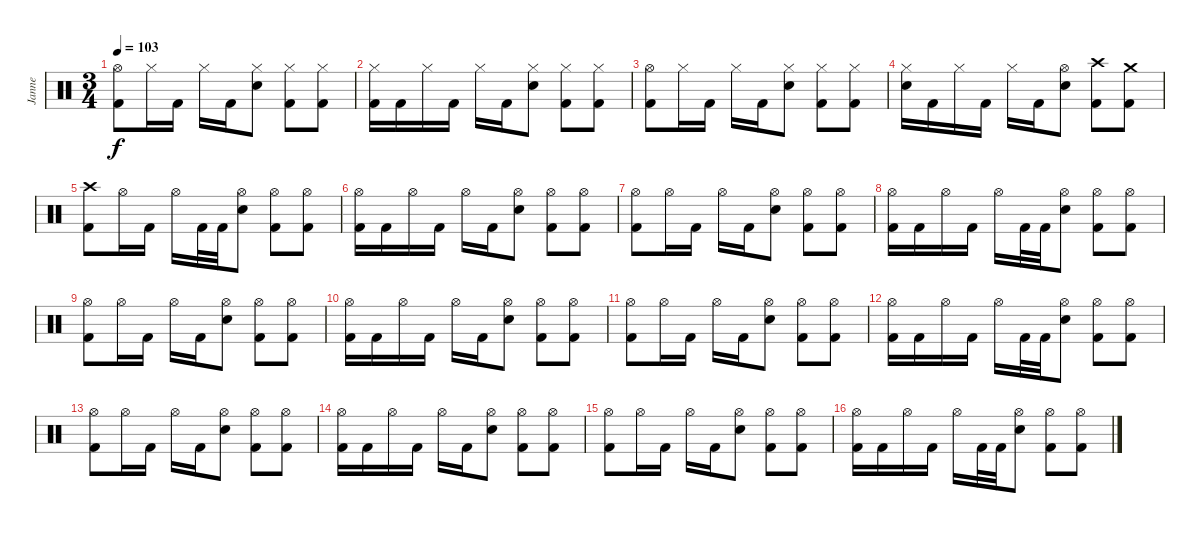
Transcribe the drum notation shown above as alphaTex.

\track ("Janne" "Janne") {instrument percussion}
\staff {score}
\articulation defaults
\ts (3 4)
\tempo 103
\clef neutral
\ks c
("Hi-Hat (open)" "Kick (hit) 2").8{dy f} "Hi-Hat (closed)".16 "Kick (hit) 2".16 "Hi-Hat (closed)".16 "Kick (hit) 2".16 ("Hi-Hat (closed)" "Electric Snare (hit)").8 ("Hi-Hat (closed)" "Kick (hit) 2").8 ("Hi-Hat (closed)" "Kick (hit) 2").8 |
("Hi-Hat (closed)" "Kick (hit) 2").16 "Kick (hit) 2".16 "Hi-Hat (closed)".16 "Kick (hit) 2".16 "Hi-Hat (closed)".16 "Kick (hit) 2".16 ("Hi-Hat (closed)" "Electric Snare (hit)").8 ("Hi-Hat (closed)" "Kick (hit) 2").8 ("Hi-Hat (closed)" "Kick (hit) 2").8 |
("Hi-Hat (open)" "Kick (hit) 2").8 "Hi-Hat (closed)".16 "Kick (hit) 2".16 "Hi-Hat (closed)".16 "Kick (hit) 2".16 ("Hi-Hat (closed)" "Electric Snare (hit)").8 ("Hi-Hat (closed)" "Kick (hit) 2").8 ("Hi-Hat (closed)" "Kick (hit) 2").8 |
("Hi-Hat (closed)" "Electric Snare (hit)").16 "Kick (hit) 2".16 "Hi-Hat (closed)".16 "Kick (hit) 2".16 "Hi-Hat (closed)".16 "Kick (hit) 2".16 ("Hi-Hat (open)" "Electric Snare (hit)").8 ("Crash high (hit)" "Kick (hit) 2").8 ("Crash medium (hit)" "Kick (hit) 2").8 |
("Crash high (hit)" "Kick (hit) 2").8 "Hi-Hat (open)".16 "Kick (hit) 2".16 "Hi-Hat (open)".16 "Kick (hit) 2".32 "Kick (hit) 2".32 ("Hi-Hat (open)" "Electric Snare (hit)").8 ("Hi-Hat (open)" "Kick (hit) 2").8 ("Hi-Hat (open)" "Kick (hit) 2").8 |
("Hi-Hat (open)" "Kick (hit) 2").16 "Kick (hit) 2".16 "Hi-Hat (open)".16 "Kick (hit) 2".16 "Hi-Hat (open)".16 "Kick (hit) 2".16 ("Hi-Hat (open)" "Electric Snare (hit)").8 ("Hi-Hat (open)" "Kick (hit) 2").8 ("Hi-Hat (open)" "Kick (hit) 2").8 |
("Hi-Hat (open)" "Kick (hit) 2").8 "Hi-Hat (open)".16 "Kick (hit) 2".16 "Hi-Hat (open)".16 "Kick (hit) 2".16 ("Hi-Hat (open)" "Electric Snare (hit)").8 ("Hi-Hat (open)" "Kick (hit) 2").8 ("Hi-Hat (open)" "Kick (hit) 2").8 |
("Hi-Hat (open)" "Kick (hit) 2").16 "Kick (hit) 2".16 "Hi-Hat (open)".16 "Kick (hit) 2".16 "Hi-Hat (open)".16 "Kick (hit) 2".32 "Kick (hit) 2".32 ("Hi-Hat (open)" "Electric Snare (hit)").8 ("Hi-Hat (open)" "Kick (hit) 2").8 ("Hi-Hat (open)" "Kick (hit) 2").8 |
("Hi-Hat (open)" "Kick (hit) 2").8 "Hi-Hat (open)".16 "Kick (hit) 2".16 "Hi-Hat (open)".16 "Kick (hit) 2".16 ("Hi-Hat (open)" "Electric Snare (hit)").8 ("Hi-Hat (open)" "Kick (hit) 2").8 ("Hi-Hat (open)" "Kick (hit) 2").8 |
("Hi-Hat (open)" "Kick (hit) 2").16 "Kick (hit) 2".16 "Hi-Hat (open)".16 "Kick (hit) 2".16 "Hi-Hat (open)".16 "Kick (hit) 2".16 ("Hi-Hat (open)" "Electric Snare (hit)").8 ("Hi-Hat (open)" "Kick (hit) 2").8 ("Hi-Hat (open)" "Kick (hit) 2").8 |
("Hi-Hat (open)" "Kick (hit) 2").8 "Hi-Hat (open)".16 "Kick (hit) 2".16 "Hi-Hat (open)".16 "Kick (hit) 2".16 ("Hi-Hat (open)" "Electric Snare (hit)").8 ("Hi-Hat (open)" "Kick (hit) 2").8 ("Hi-Hat (open)" "Kick (hit) 2").8 |
("Hi-Hat (open)" "Kick (hit) 2").16 "Kick (hit) 2".16 "Hi-Hat (open)".16 "Kick (hit) 2".16 "Hi-Hat (open)".16 "Kick (hit) 2".32 "Kick (hit) 2".32 ("Hi-Hat (open)" "Electric Snare (hit)").8 ("Hi-Hat (open)" "Kick (hit) 2").8 ("Hi-Hat (open)" "Kick (hit) 2").8 |
("Hi-Hat (open)" "Kick (hit) 2").8 "Hi-Hat (open)".16 "Kick (hit) 2".16 "Hi-Hat (open)".16 "Kick (hit) 2".16 ("Hi-Hat (open)" "Electric Snare (hit)").8 ("Hi-Hat (open)" "Kick (hit) 2").8 ("Hi-Hat (open)" "Kick (hit) 2").8 |
("Hi-Hat (open)" "Kick (hit) 2").16 "Kick (hit) 2".16 "Hi-Hat (open)".16 "Kick (hit) 2".16 "Hi-Hat (open)".16 "Kick (hit) 2".16 ("Hi-Hat (open)" "Electric Snare (hit)").8 ("Hi-Hat (open)" "Kick (hit) 2").8 ("Hi-Hat (open)" "Kick (hit) 2").8 |
("Hi-Hat (open)" "Kick (hit) 2").8 "Hi-Hat (open)".16 "Kick (hit) 2".16 "Hi-Hat (open)".16 "Kick (hit) 2".16 ("Hi-Hat (open)" "Electric Snare (hit)").8 ("Hi-Hat (open)" "Kick (hit) 2").8 ("Hi-Hat (open)" "Kick (hit) 2").8 |
("Hi-Hat (open)" "Kick (hit) 2").16 "Kick (hit) 2".16 "Hi-Hat (open)".16 "Kick (hit) 2".16 "Hi-Hat (open)".16 "Kick (hit) 2".32 "Kick (hit) 2".32 ("Hi-Hat (open)" "Electric Snare (hit)").8 ("Hi-Hat (open)" "Kick (hit) 2").8 ("Hi-Hat (open)" "Kick (hit) 2").8
